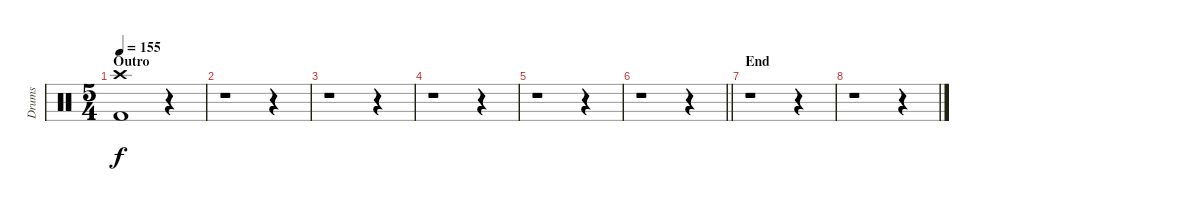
\track ("Drums" "Drums") {instrument percussion}
\staff {score}
\articulation defaults
\ts (5 4)
\section ("" "Outro")
\tempo 155
\clef neutral
\ks c
("Crash high (hit)" "Kick (hit) 2").1{dy f} r.4 |
r.1 r.4 |
r.1 r.4 |
r.1 r.4 |
r.1 r.4 |
\barLineRight lightlight
r.1 r.4 |
\section ("" "End")
r.1 r.4 |
r.1 r.4
